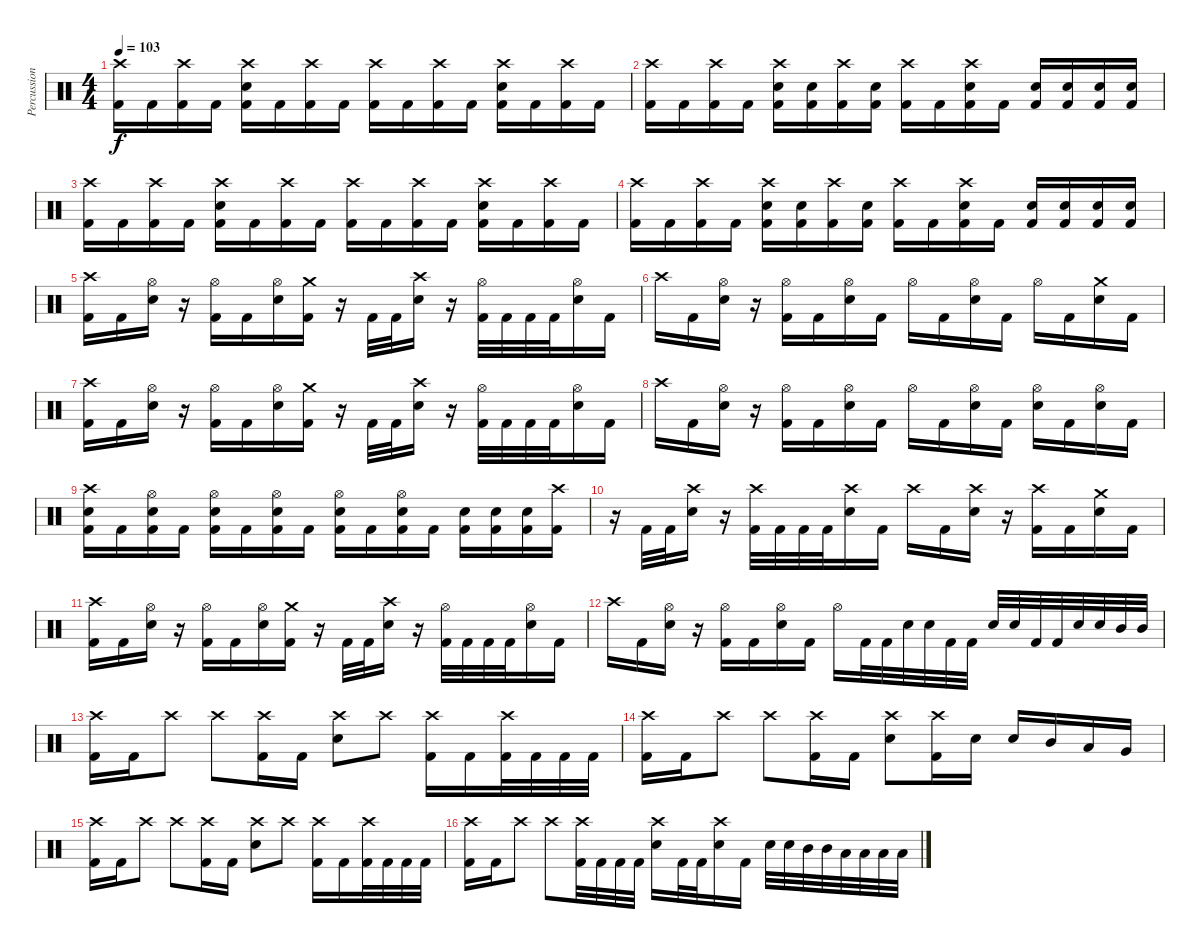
\track ("Percussion" "Percussion") {instrument percussion}
\staff {score}
\articulation defaults
\ts (4 4)
\tempo 103
\clef neutral
\ks c
("Crash high (hit)" "Kick (hit) 2").16{dy f} "Kick (hit) 2".16 ("Crash high (hit)" "Kick (hit) 2").16 "Kick (hit) 2".16 ("Crash high (hit)" "Electric Snare (hit)" "Kick (hit) 2").16 "Kick (hit) 2".16 ("Crash high (hit)" "Kick (hit) 2").16 "Kick (hit) 2".16 ("Crash high (hit)" "Kick (hit) 2").16 "Kick (hit) 2".16 ("Crash high (hit)" "Kick (hit) 2").16 "Kick (hit) 2".16 ("Crash high (hit)" "Electric Snare (hit)" "Kick (hit) 2").16 "Kick (hit) 2".16 ("Crash high (hit)" "Kick (hit) 2").16 "Kick (hit) 2".16 |
("Crash high (hit)" "Kick (hit) 2").16 "Kick (hit) 2".16 ("Crash high (hit)" "Kick (hit) 2").16 "Kick (hit) 2".16 ("Crash high (hit)" "Electric Snare (hit)" "Kick (hit) 2").16 ("Electric Snare (hit)" "Kick (hit) 2").16 ("Crash high (hit)" "Kick (hit) 2").16 ("Electric Snare (hit)" "Kick (hit) 2").16 ("Crash high (hit)" "Kick (hit) 2").16 "Kick (hit) 2".16 ("Crash high (hit)" "Electric Snare (hit)" "Kick (hit) 2").16 "Kick (hit) 2".16 ("Electric Snare (hit)" "Kick (hit) 2").16 ("Electric Snare (hit)" "Kick (hit) 2").16 ("Electric Snare (hit)" "Kick (hit) 2").16 ("Electric Snare (hit)" "Kick (hit) 2").16 |
("Crash high (hit)" "Kick (hit) 2").16 "Kick (hit) 2".16 ("Crash high (hit)" "Kick (hit) 2").16 "Kick (hit) 2".16 ("Crash high (hit)" "Electric Snare (hit)" "Kick (hit) 2").16 "Kick (hit) 2".16 ("Crash high (hit)" "Kick (hit) 2").16 "Kick (hit) 2".16 ("Crash high (hit)" "Kick (hit) 2").16 "Kick (hit) 2".16 ("Crash high (hit)" "Kick (hit) 2").16 "Kick (hit) 2".16 ("Crash high (hit)" "Electric Snare (hit)" "Kick (hit) 2").16 "Kick (hit) 2".16 ("Crash high (hit)" "Kick (hit) 2").16 "Kick (hit) 2".16 |
("Crash high (hit)" "Kick (hit) 2").16 "Kick (hit) 2".16 ("Crash high (hit)" "Kick (hit) 2").16 "Kick (hit) 2".16 ("Crash high (hit)" "Electric Snare (hit)" "Kick (hit) 2").16 ("Electric Snare (hit)" "Kick (hit) 2").16 ("Crash high (hit)" "Kick (hit) 2").16 ("Electric Snare (hit)" "Kick (hit) 2").16 ("Crash high (hit)" "Kick (hit) 2").16 "Kick (hit) 2".16 ("Crash high (hit)" "Electric Snare (hit)" "Kick (hit) 2").16 "Kick (hit) 2".16 ("Electric Snare (hit)" "Kick (hit) 2").16 ("Electric Snare (hit)" "Kick (hit) 2").16 ("Electric Snare (hit)" "Kick (hit) 2").16 ("Electric Snare (hit)" "Kick (hit) 2").16 |
("Crash high (hit)" "Kick (hit) 2").16 "Kick (hit) 2".16 ("Hi-Hat (open)" "Electric Snare (hit)").16 r.16 ("Hi-Hat (open)" "Kick (hit) 2").16 "Kick (hit) 2".16 ("Hi-Hat (open)" "Electric Snare (hit)").16 ("Crash medium (hit)" "Kick (hit) 2").16 r.16 "Kick (hit) 2".32 "Kick (hit) 2".32 ("Crash high (hit)" "Electric Snare (hit)").16 r.16 ("Hi-Hat (open)" "Kick (hit) 2").32 "Kick (hit) 2".32 "Kick (hit) 2".32 "Kick (hit) 2".32 ("Hi-Hat (open)" "Electric Snare (hit)").16 "Kick (hit) 2".16 |
"Crash high (hit)".16 "Kick (hit) 2".16 ("Hi-Hat (open)" "Electric Snare (hit)").16 r.16 ("Hi-Hat (open)" "Kick (hit) 2").16 "Kick (hit) 2".16 ("Hi-Hat (open)" "Electric Snare (hit)").16 "Kick (hit) 2".16 "Hi-Hat (open)".16 "Kick (hit) 2".16 ("Hi-Hat (open)" "Electric Snare (hit)").16 "Kick (hit) 2".16 "Hi-Hat (open)".16 "Kick (hit) 2".16 ("Crash medium (hit)" "Electric Snare (hit)").16 "Kick (hit) 2".16 |
("Crash high (hit)" "Kick (hit) 2").16 "Kick (hit) 2".16 ("Hi-Hat (open)" "Electric Snare (hit)").16 r.16 ("Hi-Hat (open)" "Kick (hit) 2").16 "Kick (hit) 2".16 ("Hi-Hat (open)" "Electric Snare (hit)").16 ("Crash medium (hit)" "Kick (hit) 2").16 r.16 "Kick (hit) 2".32 "Kick (hit) 2".32 ("Crash high (hit)" "Electric Snare (hit)").16 r.16 ("Hi-Hat (open)" "Kick (hit) 2").32 "Kick (hit) 2".32 "Kick (hit) 2".32 "Kick (hit) 2".32 ("Hi-Hat (open)" "Electric Snare (hit)").16 "Kick (hit) 2".16 |
"Crash high (hit)".16 "Kick (hit) 2".16 ("Hi-Hat (open)" "Electric Snare (hit)").16 r.16 ("Hi-Hat (open)" "Kick (hit) 2").16 "Kick (hit) 2".16 ("Hi-Hat (open)" "Electric Snare (hit)").16 "Kick (hit) 2".16 "Hi-Hat (open)".16 "Kick (hit) 2".16 ("Hi-Hat (open)" "Electric Snare (hit)").16 "Kick (hit) 2".16 ("Hi-Hat (open)" "Electric Snare (hit)").16 "Kick (hit) 2".16 ("Hi-Hat (open)" "Electric Snare (hit)").16 "Kick (hit) 2".16 |
("Crash high (hit)" "Electric Snare (hit)" "Kick (hit) 2").16 "Kick (hit) 2".16 ("Hi-Hat (open)" "Electric Snare (hit)" "Kick (hit) 2").16 "Kick (hit) 2".16 ("Hi-Hat (open)" "Electric Snare (hit)" "Kick (hit) 2").16 "Kick (hit) 2".16 ("Hi-Hat (open)" "Electric Snare (hit)" "Kick (hit) 2").16 "Kick (hit) 2".16 ("Hi-Hat (open)" "Electric Snare (hit)" "Kick (hit) 2").16 "Kick (hit) 2".16 ("Hi-Hat (open)" "Electric Snare (hit)" "Kick (hit) 2").16 "Kick (hit) 2".16 ("Electric Snare (hit)" "Kick (hit) 2").16 ("Electric Snare (hit)" "Kick (hit) 2").16 ("Electric Snare (hit)" "Kick (hit) 2").16 ("Crash high (hit)" "Kick (hit) 2").16 |
r.16 "Kick (hit) 2".32 "Kick (hit) 2".32 ("Crash high (hit)" "Electric Snare (hit)").16 r.16 ("Crash high (hit)" "Kick (hit) 2").32 "Kick (hit) 2".32 "Kick (hit) 2".32 "Kick (hit) 2".32 ("Crash high (hit)" "Electric Snare (hit)").16 "Kick (hit) 2".16 "Crash high (hit)".16 "Kick (hit) 2".16 ("Crash high (hit)" "Electric Snare (hit)").16 r.16 ("Crash high (hit)" "Kick (hit) 2").16 "Kick (hit) 2".16 ("Crash medium (hit)" "Electric Snare (hit)").16 "Kick (hit) 2".16 |
("Crash high (hit)" "Kick (hit) 2").16 "Kick (hit) 2".16 ("Hi-Hat (open)" "Electric Snare (hit)").16 r.16 ("Hi-Hat (open)" "Kick (hit) 2").16 "Kick (hit) 2".16 ("Hi-Hat (open)" "Electric Snare (hit)").16 ("Crash medium (hit)" "Kick (hit) 2").16 r.16 "Kick (hit) 2".32 "Kick (hit) 2".32 ("Crash high (hit)" "Electric Snare (hit)").16 r.16 ("Hi-Hat (open)" "Kick (hit) 2").32 "Kick (hit) 2".32 "Kick (hit) 2".32 "Kick (hit) 2".32 ("Hi-Hat (open)" "Electric Snare (hit)").16 "Kick (hit) 2".16 |
"Crash high (hit)".16 "Kick (hit) 2".16 ("Hi-Hat (open)" "Electric Snare (hit)").16 r.16 ("Hi-Hat (open)" "Kick (hit) 2").16 "Kick (hit) 2".16 ("Hi-Hat (open)" "Electric Snare (hit)").16 "Kick (hit) 2".16 "Hi-Hat (open)".16 "Kick (hit) 2".32 "Kick (hit) 2".32 "Electric Snare (hit)".32 "Electric Snare (hit)".32 "Kick (hit) 2".32 "Kick (hit) 2".32 "Electric Snare (hit)".32 "Electric Snare (hit)".32 "Kick (hit) 2".32 "Kick (hit) 2".32 "Electric Snare (hit)".32 "Electric Snare (hit)".32 "Mid Tom (hit)".32 "Mid Tom (hit)".32 |
("Crash high (hit)" "Kick (hit) 2").16 "Kick (hit) 2".16 "Crash high (hit)".8 "Crash high (hit)".8 ("Crash high (hit)" "Kick (hit) 2").16 "Kick (hit) 2".16 ("Crash high (hit)" "Electric Snare (hit)").8 "Crash high (hit)".8 ("Crash high (hit)" "Kick (hit) 2").16 "Kick (hit) 2".16 ("Crash high (hit)" "Kick (hit) 2").32 "Kick (hit) 2".32 "Kick (hit) 2".32 "Kick (hit) 2".32 |
("Crash high (hit)" "Kick (hit) 2").16 "Kick (hit) 2".16 "Crash high (hit)".8 "Crash high (hit)".8 ("Crash high (hit)" "Kick (hit) 2").16 "Kick (hit) 2".16 ("Crash high (hit)" "Electric Snare (hit)").8 ("Crash high (hit)" "Kick (hit) 2").16 "Electric Snare (hit)".16 "Electric Snare (hit)".16 "Mid Tom (hit)".16 "Low Tom (hit)".16 "Very Low Tom (hit)".16 |
("Crash high (hit)" "Kick (hit) 2").16 "Kick (hit) 2".16 "Crash high (hit)".8 "Crash high (hit)".8 ("Crash high (hit)" "Kick (hit) 2").16 "Kick (hit) 2".16 ("Crash high (hit)" "Electric Snare (hit)").8 "Crash high (hit)".8 ("Crash high (hit)" "Kick (hit) 2").16 "Kick (hit) 2".16 ("Crash high (hit)" "Kick (hit) 2").32 "Kick (hit) 2".32 "Kick (hit) 2".32 "Kick (hit) 2".32 |
("Crash high (hit)" "Kick (hit) 2").16 "Kick (hit) 2".16 "Crash high (hit)".8 "Crash high (hit)".8 ("Crash high (hit)" "Kick (hit) 2").32 "Kick (hit) 2".32 "Kick (hit) 2".32 "Kick (hit) 2".32 ("Crash high (hit)" "Electric Snare (hit)").16 "Kick (hit) 2".32 "Kick (hit) 2".32 ("Crash high (hit)" "Electric Snare (hit)").16 "Kick (hit) 2".16 "Electric Snare (hit)".32 "Electric Snare (hit)".32 "Mid Tom (hit)".32 "Mid Tom (hit)".32 "Low Tom (hit)".32 "Low Tom (hit)".32 "Low Tom (hit)".32 "Low Tom (hit)".32
